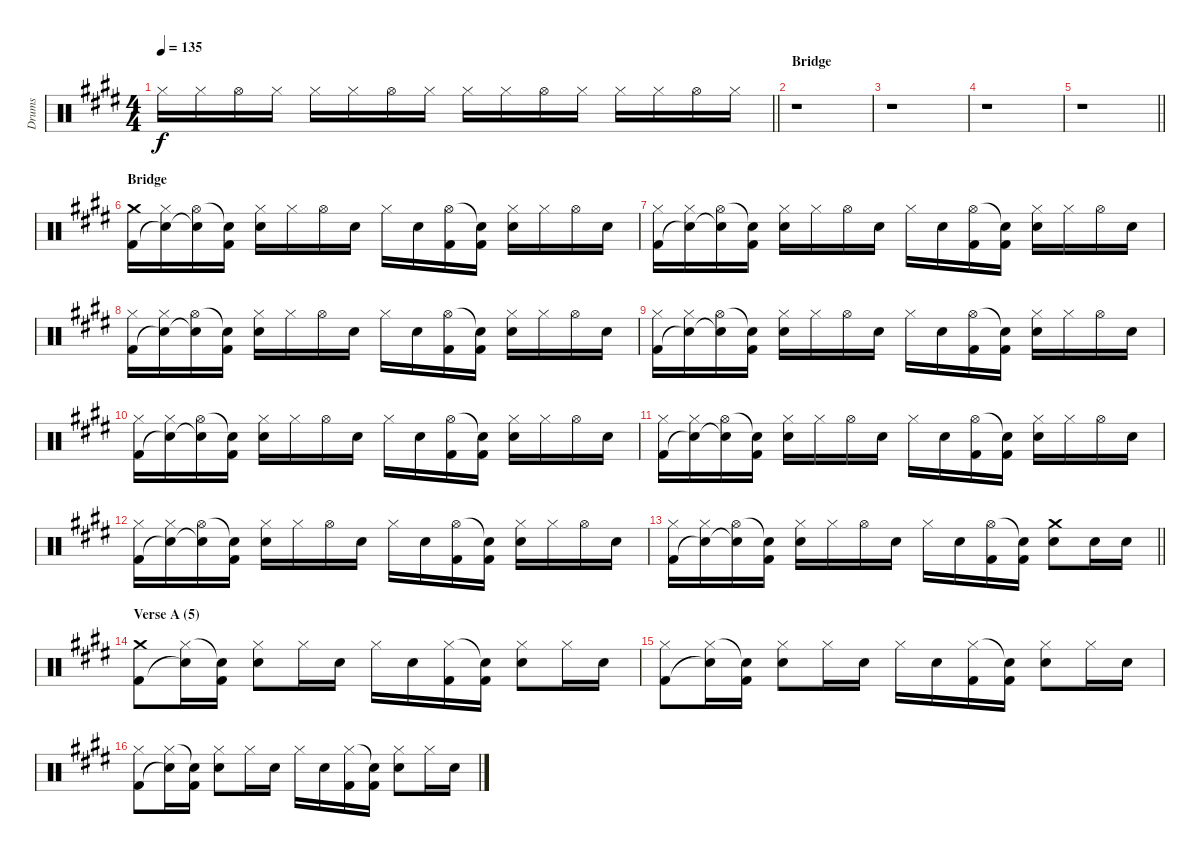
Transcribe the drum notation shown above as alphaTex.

\track ("Drums" "Drums") {instrument percussion}
\staff {score}
\articulation defaults
\ts (4 4)
\tempo 135
\clef neutral
\barLineRight lightlight
\ks c#minor "Hi-Hat (closed)".16{dy f} "Hi-Hat (closed)".16 "Hi-Hat (open)".16 "Hi-Hat (closed)".16 "Hi-Hat (closed)".16 "Hi-Hat (closed)".16 "Hi-Hat (open)".16 "Hi-Hat (closed)".16 "Hi-Hat (closed)".16 "Hi-Hat (closed)".16 "Hi-Hat (open)".16 "Hi-Hat (closed)".16 "Hi-Hat (closed)".16 "Hi-Hat (closed)".16 "Hi-Hat (open)".16 "Hi-Hat (closed)".16
|
\section ("" "Bridge")
r.1 |
r.1 |
r.1 |
\barLineRight lightlight
r.1 |
\section ("" "Bridge")
("Crash medium (hit)" "Kick (hit) 2").16 ("Hi-Hat (closed)" "Snare (hit)"{t}).16 ("Hi-Hat (open)" "Snare (hit)"{t}).16 ("Snare (hit)"{t} "Kick (hit) 2").16 ("Hi-Hat (closed)" "Electric Snare (hit)").16 "Hi-Hat (closed)".16 "Hi-Hat (open)".16 "Electric Snare (hit)".16 "Hi-Hat (closed)".16 "Electric Snare (hit)".16 ("Hi-Hat (open)" "Kick (hit) 2").16 ("Snare (hit)"{t} "Kick (hit) 2").16 ("Hi-Hat (closed)" "Electric Snare (hit)").16 "Hi-Hat (closed)".16 "Hi-Hat (open)".16 "Electric Snare (hit)".16 |
("Hi-Hat (closed)" "Kick (hit) 2").16 ("Hi-Hat (closed)" "Snare (hit)"{t}).16 ("Hi-Hat (open)" "Snare (hit)"{t}).16 ("Snare (hit)"{t} "Kick (hit) 2").16 ("Hi-Hat (closed)" "Electric Snare (hit)").16 "Hi-Hat (closed)".16 "Hi-Hat (open)".16 "Electric Snare (hit)".16 "Hi-Hat (closed)".16 "Electric Snare (hit)".16 ("Hi-Hat (open)" "Kick (hit) 2").16 ("Snare (hit)"{t} "Kick (hit) 2").16 ("Hi-Hat (closed)" "Electric Snare (hit)").16 "Hi-Hat (closed)".16 "Hi-Hat (open)".16 "Electric Snare (hit)".16 |
("Hi-Hat (closed)" "Kick (hit) 2").16 ("Hi-Hat (closed)" "Snare (hit)"{t}).16 ("Hi-Hat (open)" "Snare (hit)"{t}).16 ("Snare (hit)"{t} "Kick (hit) 2").16 ("Hi-Hat (closed)" "Electric Snare (hit)").16 "Hi-Hat (closed)".16 "Hi-Hat (open)".16 "Electric Snare (hit)".16 "Hi-Hat (closed)".16 "Electric Snare (hit)".16 ("Hi-Hat (open)" "Kick (hit) 2").16 ("Snare (hit)"{t} "Kick (hit) 2").16 ("Hi-Hat (closed)" "Electric Snare (hit)").16 "Hi-Hat (closed)".16 "Hi-Hat (open)".16 "Electric Snare (hit)".16 |
("Hi-Hat (closed)" "Kick (hit) 2").16 ("Hi-Hat (closed)" "Snare (hit)"{t}).16 ("Hi-Hat (open)" "Snare (hit)"{t}).16 ("Snare (hit)"{t} "Kick (hit) 2").16 ("Hi-Hat (closed)" "Electric Snare (hit)").16 "Hi-Hat (closed)".16 "Hi-Hat (open)".16 "Electric Snare (hit)".16 "Hi-Hat (closed)".16 "Electric Snare (hit)".16 ("Hi-Hat (open)" "Kick (hit) 2").16 ("Snare (hit)"{t} "Kick (hit) 2").16 ("Hi-Hat (closed)" "Electric Snare (hit)").16 "Hi-Hat (closed)".16 "Hi-Hat (open)".16 "Electric Snare (hit)".16 |
("Hi-Hat (closed)" "Kick (hit) 2").16 ("Hi-Hat (closed)" "Snare (hit)"{t}).16 ("Hi-Hat (open)" "Snare (hit)"{t}).16 ("Snare (hit)"{t} "Kick (hit) 2").16 ("Hi-Hat (closed)" "Electric Snare (hit)").16 "Hi-Hat (closed)".16 "Hi-Hat (open)".16 "Electric Snare (hit)".16 "Hi-Hat (closed)".16 "Electric Snare (hit)".16 ("Hi-Hat (open)" "Kick (hit) 2").16 ("Snare (hit)"{t} "Kick (hit) 2").16 ("Hi-Hat (closed)" "Electric Snare (hit)").16 "Hi-Hat (closed)".16 "Hi-Hat (open)".16 "Electric Snare (hit)".16 |
("Hi-Hat (closed)" "Kick (hit) 2").16 ("Hi-Hat (closed)" "Snare (hit)"{t}).16 ("Hi-Hat (open)" "Snare (hit)"{t}).16 ("Snare (hit)"{t} "Kick (hit) 2").16 ("Hi-Hat (closed)" "Electric Snare (hit)").16 "Hi-Hat (closed)".16 "Hi-Hat (open)".16 "Electric Snare (hit)".16 "Hi-Hat (closed)".16 "Electric Snare (hit)".16 ("Hi-Hat (open)" "Kick (hit) 2").16 ("Snare (hit)"{t} "Kick (hit) 2").16 ("Hi-Hat (closed)" "Electric Snare (hit)").16 "Hi-Hat (closed)".16 "Hi-Hat (open)".16 "Electric Snare (hit)".16 |
("Hi-Hat (closed)" "Kick (hit) 2").16 ("Hi-Hat (closed)" "Snare (hit)"{t}).16 ("Hi-Hat (open)" "Snare (hit)"{t}).16 ("Snare (hit)"{t} "Kick (hit) 2").16 ("Hi-Hat (closed)" "Electric Snare (hit)").16 "Hi-Hat (closed)".16 "Hi-Hat (open)".16 "Electric Snare (hit)".16 "Hi-Hat (closed)".16 "Electric Snare (hit)".16 ("Hi-Hat (open)" "Kick (hit) 2").16 ("Snare (hit)"{t} "Kick (hit) 2").16 ("Hi-Hat (closed)" "Electric Snare (hit)").16 "Hi-Hat (closed)".16 "Hi-Hat (open)".16 "Electric Snare (hit)".16 |
\barLineRight lightlight
("Hi-Hat (closed)" "Kick (hit) 2").16 ("Hi-Hat (closed)" "Snare (hit)"{t}).16 ("Hi-Hat (open)" "Snare (hit)"{t}).16 ("Snare (hit)"{t} "Kick (hit) 2").16 ("Hi-Hat (closed)" "Electric Snare (hit)").16 "Hi-Hat (closed)".16 "Hi-Hat (open)".16 "Electric Snare (hit)".16 "Hi-Hat (closed)".16 "Electric Snare (hit)".16 ("Hi-Hat (open)" "Kick (hit) 2").16 ("Snare (hit)"{t} "Kick (hit) 2").16 ("Crash medium (hit)" "Electric Snare (hit)").8 "Electric Snare (hit)".16 "Electric Snare (hit)".16 |
\section ("" "Verse A (5)")
("Crash medium (hit)" "Kick (hit) 2").8 ("Hi-Hat (closed)" "Snare (hit)"{t}).16 ("Snare (hit)"{t} "Kick (hit) 2").16 ("Hi-Hat (closed)" "Electric Snare (hit)").8 "Hi-Hat (closed)".16 "Electric Snare (hit)".16 "Hi-Hat (closed)".16 "Electric Snare (hit)".16 ("Hi-Hat (closed)" "Kick (hit) 2").16 ("Snare (hit)"{t} "Kick (hit) 2").16 ("Hi-Hat (closed)" "Electric Snare (hit)").8 "Hi-Hat (closed)".16 "Electric Snare (hit)".16 |
("Hi-Hat (closed)" "Kick (hit) 2").8 ("Hi-Hat (closed)" "Snare (hit)"{t}).16 ("Snare (hit)"{t} "Kick (hit) 2").16 ("Hi-Hat (closed)" "Electric Snare (hit)").8 "Hi-Hat (closed)".16 "Electric Snare (hit)".16 "Hi-Hat (closed)".16 "Electric Snare (hit)".16 ("Hi-Hat (closed)" "Kick (hit) 2").16 ("Snare (hit)"{t} "Kick (hit) 2").16 ("Hi-Hat (closed)" "Electric Snare (hit)").8 "Hi-Hat (closed)".16 "Electric Snare (hit)".16 |
("Hi-Hat (closed)" "Kick (hit) 2").8 ("Hi-Hat (closed)" "Snare (hit)"{t}).16 ("Snare (hit)"{t} "Kick (hit) 2").16 ("Hi-Hat (closed)" "Electric Snare (hit)").8 "Hi-Hat (closed)".16 "Electric Snare (hit)".16 "Hi-Hat (closed)".16 "Electric Snare (hit)".16 ("Hi-Hat (closed)" "Kick (hit) 2").16 ("Snare (hit)"{t} "Kick (hit) 2").16 ("Hi-Hat (closed)" "Electric Snare (hit)").8 "Hi-Hat (closed)".16 "Electric Snare (hit)".16
